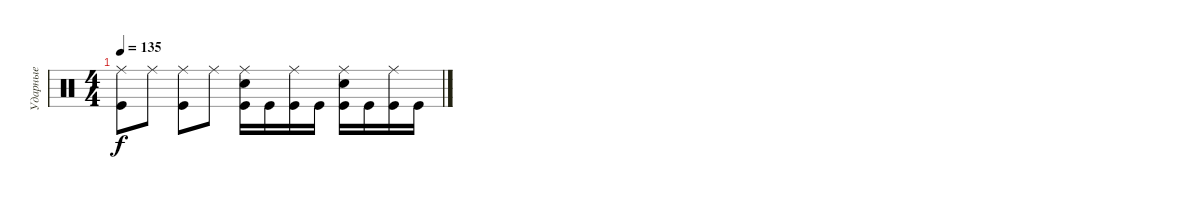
\track ("Ударные" "Ударные") {instrument percussion}
\staff {score}
\articulation defaults
\ts (4 4)
\tempo 135
\clef neutral
\ks c
("Ride (middle)" "Kick (hit)").8{dy f} "Ride (middle)".8 ("Ride (middle)" "Kick (hit)").8 "Ride (middle)".8 ("Ride (middle)" "Electric Snare (hit)" "Kick (hit)").16 "Kick (hit)".16 ("Ride (middle)" "Kick (hit)").16 "Kick (hit)".16 ("Ride (middle)" "Electric Snare (hit)" "Kick (hit)").16 "Kick (hit)".16 ("Ride (middle)" "Kick (hit)").16 "Kick (hit)".16
